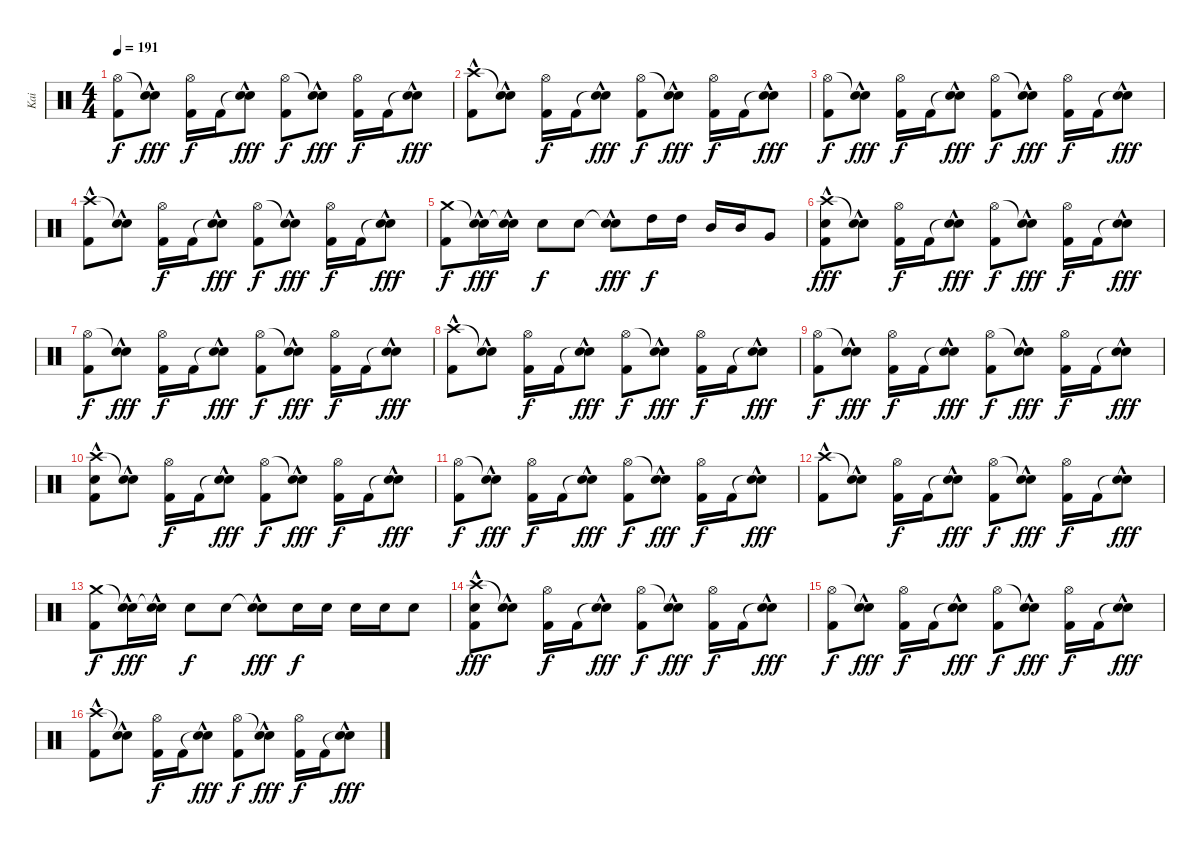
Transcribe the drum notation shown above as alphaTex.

\track ("Kai" "Kai") {instrument percussion}
\staff {score}
\articulation defaults
\ts (4 4)
\tempo 191
\clef neutral
\ks c
("Hi-Hat (open)" "Kick (hit) 2").8{dy f} ("Snare (hit)"{t} "Snare (hit) 2"{hac}).8{dy fff} ("Hi-Hat (open)" "Kick (hit) 2").16{dy f} "Kick (hit) 2".16 ("Snare (hit)"{t} "Snare (hit) 2"{hac}).8{dy fff} ("Hi-Hat (open)" "Kick (hit) 2").8{dy f} ("Snare (hit)"{t} "Snare (hit) 2"{hac}).8{dy fff} ("Hi-Hat (open)" "Kick (hit) 2").16{dy f} "Kick (hit) 2".16 ("Snare (hit)"{t} "Snare (hit) 2"{hac}).8{dy fff} |
("Crash high (hit)"{hac} "Kick (hit) 2").8 ("Snare (hit)"{t} "Snare (hit) 2"{hac}).8 ("Hi-Hat (open)" "Kick (hit) 2").16{dy f} "Kick (hit) 2".16 ("Snare (hit)"{t} "Snare (hit) 2"{hac}).8{dy fff} ("Hi-Hat (open)" "Kick (hit) 2").8{dy f} ("Snare (hit)"{t} "Snare (hit) 2"{hac}).8{dy fff} ("Hi-Hat (open)" "Kick (hit) 2").16{dy f} "Kick (hit) 2".16 ("Snare (hit)"{t} "Snare (hit) 2"{hac}).8{dy fff} |
("Hi-Hat (open)" "Kick (hit) 2").8{dy f} ("Snare (hit)"{t} "Snare (hit) 2"{hac}).8{dy fff} ("Hi-Hat (open)" "Kick (hit) 2").16{dy f} "Kick (hit) 2".16 ("Snare (hit)"{t} "Snare (hit) 2"{hac}).8{dy fff} ("Hi-Hat (open)" "Kick (hit) 2").8{dy f} ("Snare (hit)"{t} "Snare (hit) 2"{hac}).8{dy fff} ("Hi-Hat (open)" "Kick (hit) 2").16{dy f} "Kick (hit) 2".16 ("Snare (hit)"{t} "Snare (hit) 2"{hac}).8{dy fff} |
("Crash high (hit)"{hac} "Kick (hit) 2").8 ("Snare (hit)"{t} "Snare (hit) 2"{hac}).8 ("Hi-Hat (open)" "Kick (hit) 2").16{dy f} "Kick (hit) 2".16 ("Snare (hit)"{t} "Snare (hit) 2"{hac}).8{dy fff} ("Hi-Hat (open)" "Kick (hit) 2").8{dy f} ("Snare (hit)"{t} "Snare (hit) 2"{hac}).8{dy fff} ("Hi-Hat (open)" "Kick (hit) 2").16{dy f} "Kick (hit) 2".16 ("Snare (hit)"{t} "Snare (hit) 2"{hac}).8{dy fff} |
("Crash medium (hit)" "Kick (hit) 2").8{dy f} ("Snare (hit)"{t} "Snare (hit) 2"{hac}).16{dy fff} ("Snare (hit)"{t} "Snare (hit) 2"{hac}).16 "Snare (hit) 2".8{dy f} "Snare (hit) 2".8 ("Snare (hit)"{t} "Snare (hit) 2"{hac}).8{dy fff} "High Tom (hit)".16{dy f} "High Tom (hit)".16 "Mid Tom (hit)".16 "Mid Tom (hit)".16 "Very Low Tom (hit)".8 |
("Crash high (hit)" "Snare (hit) 2"{hac} "Kick (hit) 2").8{dy fff} ("Snare (hit)"{t} "Snare (hit) 2"{hac}).8 ("Hi-Hat (open)" "Kick (hit) 2").16{dy f} "Kick (hit) 2".16 ("Snare (hit)"{t} "Snare (hit) 2"{hac}).8{dy fff} ("Hi-Hat (open)" "Kick (hit) 2").8{dy f} ("Snare (hit)"{t} "Snare (hit) 2"{hac}).8{dy fff} ("Hi-Hat (open)" "Kick (hit) 2").16{dy f} "Kick (hit) 2".16 ("Snare (hit)"{t} "Snare (hit) 2"{hac}).8{dy fff} |
("Hi-Hat (open)" "Kick (hit) 2").8{dy f} ("Snare (hit)"{t} "Snare (hit) 2"{hac}).8{dy fff} ("Hi-Hat (open)" "Kick (hit) 2").16{dy f} "Kick (hit) 2".16 ("Snare (hit)"{t} "Snare (hit) 2"{hac}).8{dy fff} ("Hi-Hat (open)" "Kick (hit) 2").8{dy f} ("Snare (hit)"{t} "Snare (hit) 2"{hac}).8{dy fff} ("Hi-Hat (open)" "Kick (hit) 2").16{dy f} "Kick (hit) 2".16 ("Snare (hit)"{t} "Snare (hit) 2"{hac}).8{dy fff} |
("Crash high (hit)"{hac} "Kick (hit) 2").8 ("Snare (hit)"{t} "Snare (hit) 2"{hac}).8 ("Hi-Hat (open)" "Kick (hit) 2").16{dy f} "Kick (hit) 2".16 ("Snare (hit)"{t} "Snare (hit) 2"{hac}).8{dy fff} ("Hi-Hat (open)" "Kick (hit) 2").8{dy f} ("Snare (hit)"{t} "Snare (hit) 2"{hac}).8{dy fff} ("Hi-Hat (open)" "Kick (hit) 2").16{dy f} "Kick (hit) 2".16 ("Snare (hit)"{t} "Snare (hit) 2"{hac}).8{dy fff} |
("Hi-Hat (open)" "Kick (hit) 2").8{dy f} ("Snare (hit)"{t} "Snare (hit) 2"{hac}).8{dy fff} ("Hi-Hat (open)" "Kick (hit) 2").16{dy f} "Kick (hit) 2".16 ("Snare (hit)"{t} "Snare (hit) 2"{hac}).8{dy fff} ("Hi-Hat (open)" "Kick (hit) 2").8{dy f} ("Snare (hit)"{t} "Snare (hit) 2"{hac}).8{dy fff} ("Hi-Hat (open)" "Kick (hit) 2").16{dy f} "Kick (hit) 2".16 ("Snare (hit)"{t} "Snare (hit) 2"{hac}).8{dy fff} |
("Crash high (hit)"{hac} "Snare (hit) 2" "Kick (hit) 2").8 ("Snare (hit)"{t} "Snare (hit) 2"{hac}).8 ("Hi-Hat (open)" "Kick (hit) 2").16{dy f} "Kick (hit) 2".16 ("Snare (hit)"{t} "Snare (hit) 2"{hac}).8{dy fff} ("Hi-Hat (open)" "Kick (hit) 2").8{dy f} ("Snare (hit)"{t} "Snare (hit) 2"{hac}).8{dy fff} ("Hi-Hat (open)" "Kick (hit) 2").16{dy f} "Kick (hit) 2".16 ("Snare (hit)"{t} "Snare (hit) 2"{hac}).8{dy fff} |
("Hi-Hat (open)" "Kick (hit) 2").8{dy f} ("Snare (hit)"{t} "Snare (hit) 2"{hac}).8{dy fff} ("Hi-Hat (open)" "Kick (hit) 2").16{dy f} "Kick (hit) 2".16 ("Snare (hit)"{t} "Snare (hit) 2"{hac}).8{dy fff} ("Hi-Hat (open)" "Kick (hit) 2").8{dy f} ("Snare (hit)"{t} "Snare (hit) 2"{hac}).8{dy fff} ("Hi-Hat (open)" "Kick (hit) 2").16{dy f} "Kick (hit) 2".16 ("Snare (hit)"{t} "Snare (hit) 2"{hac}).8{dy fff} |
("Crash high (hit)"{hac} "Kick (hit) 2").8 ("Snare (hit)"{t} "Snare (hit) 2"{hac}).8 ("Hi-Hat (open)" "Kick (hit) 2").16{dy f} "Kick (hit) 2".16 ("Snare (hit)"{t} "Snare (hit) 2"{hac}).8{dy fff} ("Hi-Hat (open)" "Kick (hit) 2").8{dy f} ("Snare (hit)"{t} "Snare (hit) 2"{hac}).8{dy fff} ("Hi-Hat (open)" "Kick (hit) 2").16{dy f} "Kick (hit) 2".16 ("Snare (hit)"{t} "Snare (hit) 2"{hac}).8{dy fff} |
("Crash medium (hit)" "Kick (hit) 2").8{dy f} ("Snare (hit)"{t} "Snare (hit) 2"{hac}).16{dy fff} ("Snare (hit)"{t} "Snare (hit) 2"{hac}).16 "Snare (hit) 2".8{dy f} "Snare (hit) 2".8 ("Snare (hit)"{t} "Snare (hit) 2"{hac}).8{dy fff} "Snare (hit) 2".16{dy f} "Snare (hit) 2".16 "Snare (hit) 2".16 "Snare (hit) 2".16 "Snare (hit) 2".8 |
("Crash high (hit)" "Snare (hit) 2"{hac} "Kick (hit) 2").8{dy fff} ("Snare (hit)"{t} "Snare (hit) 2"{hac}).8 ("Hi-Hat (open)" "Kick (hit) 2").16{dy f} "Kick (hit) 2".16 ("Snare (hit)"{t} "Snare (hit) 2"{hac}).8{dy fff} ("Hi-Hat (open)" "Kick (hit) 2").8{dy f} ("Snare (hit)"{t} "Snare (hit) 2"{hac}).8{dy fff} ("Hi-Hat (open)" "Kick (hit) 2").16{dy f} "Kick (hit) 2".16 ("Snare (hit)"{t} "Snare (hit) 2"{hac}).8{dy fff} |
("Hi-Hat (open)" "Kick (hit) 2").8{dy f} ("Snare (hit)"{t} "Snare (hit) 2"{hac}).8{dy fff} ("Hi-Hat (open)" "Kick (hit) 2").16{dy f} "Kick (hit) 2".16 ("Snare (hit)"{t} "Snare (hit) 2"{hac}).8{dy fff} ("Hi-Hat (open)" "Kick (hit) 2").8{dy f} ("Snare (hit)"{t} "Snare (hit) 2"{hac}).8{dy fff} ("Hi-Hat (open)" "Kick (hit) 2").16{dy f} "Kick (hit) 2".16 ("Snare (hit)"{t} "Snare (hit) 2"{hac}).8{dy fff} |
("Crash high (hit)"{hac} "Kick (hit) 2").8 ("Snare (hit)"{t} "Snare (hit) 2"{hac}).8 ("Hi-Hat (open)" "Kick (hit) 2").16{dy f} "Kick (hit) 2".16 ("Snare (hit)"{t} "Snare (hit) 2"{hac}).8{dy fff} ("Hi-Hat (open)" "Kick (hit) 2").8{dy f} ("Snare (hit)"{t} "Snare (hit) 2"{hac}).8{dy fff} ("Hi-Hat (open)" "Kick (hit) 2").16{dy f} "Kick (hit) 2".16 ("Snare (hit)"{t} "Snare (hit) 2"{hac}).8{dy fff}
